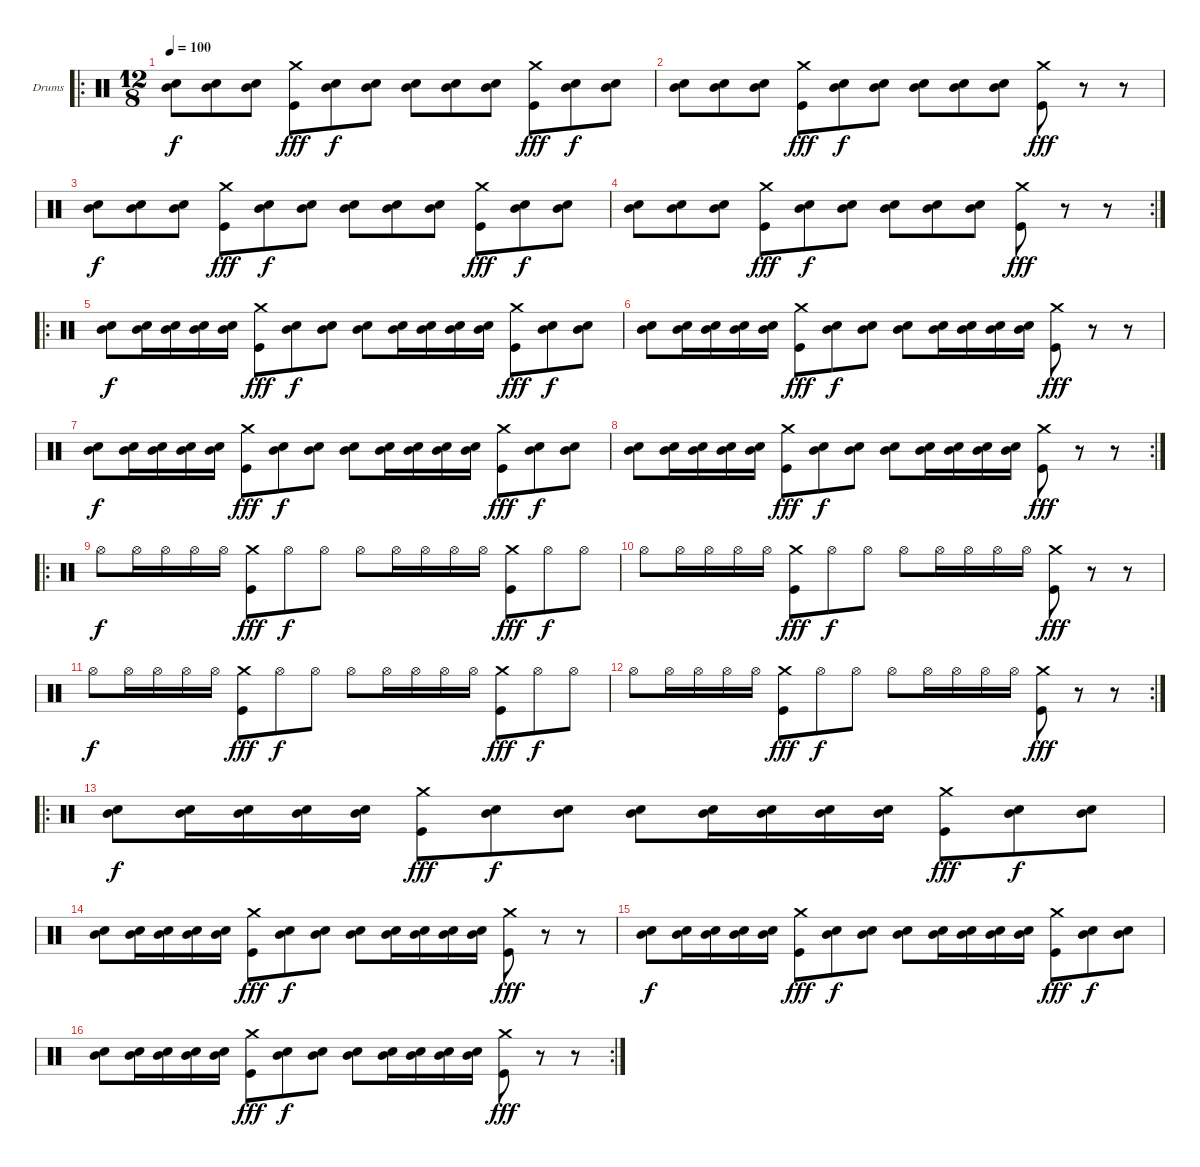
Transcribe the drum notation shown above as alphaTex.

\bracketExtendMode groupsimilarinstruments
\firstSystemTrackNameOrientation horizontal
\otherSystemsTrackNameOrientation horizontal
\track ("Сеня(Drumkit)" "Drums") {instrument percussion}
\staff {score}
\articulation defaults
\ro
\ts (12 8)
\tempo 100
\clef neutral
\ks c
("Mid Tom (hit)" "Snare (hit) 2").8{dy f} ("Mid Tom (hit)" "Snare (hit) 2").8 ("Mid Tom (hit)" "Snare (hit) 2").8 ("Crash medium (hit)" "Kick (hit)").8{dy fff} ("Mid Tom (hit)" "Snare (hit) 2").8{dy f} ("Mid Tom (hit)" "Snare (hit) 2").8 ("Mid Tom (hit)" "Snare (hit) 2").8 ("Mid Tom (hit)" "Snare (hit) 2").8 ("Mid Tom (hit)" "Snare (hit) 2").8 ("Crash medium (hit)" "Kick (hit)").8{dy fff} ("Mid Tom (hit)" "Snare (hit) 2").8{dy f} ("Mid Tom (hit)" "Snare (hit) 2").8 |
("Mid Tom (hit)" "Snare (hit) 2").8 ("Mid Tom (hit)" "Snare (hit) 2").8 ("Mid Tom (hit)" "Snare (hit) 2").8 ("Crash medium (hit)" "Kick (hit)").8{dy fff} ("Mid Tom (hit)" "Snare (hit) 2").8{dy f} ("Mid Tom (hit)" "Snare (hit) 2").8 ("Mid Tom (hit)" "Snare (hit) 2").8 ("Mid Tom (hit)" "Snare (hit) 2").8 ("Mid Tom (hit)" "Snare (hit) 2").8 ("Crash medium (hit)" "Kick (hit)").8{dy fff} r.8 r.8 |
("Mid Tom (hit)" "Snare (hit) 2").8{dy f} ("Mid Tom (hit)" "Snare (hit) 2").8 ("Mid Tom (hit)" "Snare (hit) 2").8 ("Crash medium (hit)" "Kick (hit)").8{dy fff} ("Mid Tom (hit)" "Snare (hit) 2").8{dy f} ("Mid Tom (hit)" "Snare (hit) 2").8 ("Mid Tom (hit)" "Snare (hit) 2").8 ("Mid Tom (hit)" "Snare (hit) 2").8 ("Mid Tom (hit)" "Snare (hit) 2").8 ("Crash medium (hit)" "Kick (hit)").8{dy fff} ("Mid Tom (hit)" "Snare (hit) 2").8{dy f} ("Mid Tom (hit)" "Snare (hit) 2").8 |
\rc 2
("Mid Tom (hit)" "Snare (hit) 2").8 ("Mid Tom (hit)" "Snare (hit) 2").8 ("Mid Tom (hit)" "Snare (hit) 2").8 ("Crash medium (hit)" "Kick (hit)").8{dy fff} ("Mid Tom (hit)" "Snare (hit) 2").8{dy f} ("Mid Tom (hit)" "Snare (hit) 2").8 ("Mid Tom (hit)" "Snare (hit) 2").8 ("Mid Tom (hit)" "Snare (hit) 2").8 ("Mid Tom (hit)" "Snare (hit) 2").8 ("Crash medium (hit)" "Kick (hit)").8{dy fff} r.8 r.8 |
\ro
("Mid Tom (hit)" "Snare (hit) 2").8{dy f} ("Mid Tom (hit)" "Snare (hit) 2").16 ("Mid Tom (hit)" "Snare (hit) 2").16 ("Mid Tom (hit)" "Snare (hit) 2").16 ("Mid Tom (hit)" "Snare (hit) 2").16 ("Crash medium (hit)" "Kick (hit)").8{dy fff} ("Mid Tom (hit)" "Snare (hit) 2").8{dy f} ("Mid Tom (hit)" "Snare (hit) 2").8 ("Mid Tom (hit)" "Snare (hit) 2").8 ("Mid Tom (hit)" "Snare (hit) 2").16 ("Mid Tom (hit)" "Snare (hit) 2").16 ("Mid Tom (hit)" "Snare (hit) 2").16 ("Mid Tom (hit)" "Snare (hit) 2").16 ("Crash medium (hit)" "Kick (hit)").8{dy fff} ("Mid Tom (hit)" "Snare (hit) 2").8{dy f} ("Mid Tom (hit)" "Snare (hit) 2").8 |
("Mid Tom (hit)" "Snare (hit) 2").8 ("Mid Tom (hit)" "Snare (hit) 2").16 ("Mid Tom (hit)" "Snare (hit) 2").16 ("Mid Tom (hit)" "Snare (hit) 2").16 ("Mid Tom (hit)" "Snare (hit) 2").16 ("Crash medium (hit)" "Kick (hit)").8{dy fff} ("Mid Tom (hit)" "Snare (hit) 2").8{dy f} ("Mid Tom (hit)" "Snare (hit) 2").8 ("Mid Tom (hit)" "Snare (hit) 2").8 ("Mid Tom (hit)" "Snare (hit) 2").16 ("Mid Tom (hit)" "Snare (hit) 2").16 ("Mid Tom (hit)" "Snare (hit) 2").16 ("Mid Tom (hit)" "Snare (hit) 2").16 ("Crash medium (hit)" "Kick (hit)").8{dy fff} r.8 r.8 |
("Mid Tom (hit)" "Snare (hit) 2").8{dy f} ("Mid Tom (hit)" "Snare (hit) 2").16 ("Mid Tom (hit)" "Snare (hit) 2").16 ("Mid Tom (hit)" "Snare (hit) 2").16 ("Mid Tom (hit)" "Snare (hit) 2").16 ("Crash medium (hit)" "Kick (hit)").8{dy fff} ("Mid Tom (hit)" "Snare (hit) 2").8{dy f} ("Mid Tom (hit)" "Snare (hit) 2").8 ("Mid Tom (hit)" "Snare (hit) 2").8 ("Mid Tom (hit)" "Snare (hit) 2").16 ("Mid Tom (hit)" "Snare (hit) 2").16 ("Mid Tom (hit)" "Snare (hit) 2").16 ("Mid Tom (hit)" "Snare (hit) 2").16 ("Crash medium (hit)" "Kick (hit)").8{dy fff} ("Mid Tom (hit)" "Snare (hit) 2").8{dy f} ("Mid Tom (hit)" "Snare (hit) 2").8 |
\rc 2
("Mid Tom (hit)" "Snare (hit) 2").8 ("Mid Tom (hit)" "Snare (hit) 2").16 ("Mid Tom (hit)" "Snare (hit) 2").16 ("Mid Tom (hit)" "Snare (hit) 2").16 ("Mid Tom (hit)" "Snare (hit) 2").16 ("Crash medium (hit)" "Kick (hit)").8{dy fff} ("Mid Tom (hit)" "Snare (hit) 2").8{dy f} ("Mid Tom (hit)" "Snare (hit) 2").8 ("Mid Tom (hit)" "Snare (hit) 2").8 ("Mid Tom (hit)" "Snare (hit) 2").16 ("Mid Tom (hit)" "Snare (hit) 2").16 ("Mid Tom (hit)" "Snare (hit) 2").16 ("Mid Tom (hit)" "Snare (hit) 2").16 ("Crash medium (hit)" "Kick (hit)").8{dy fff} r.8 r.8 |
\ro "Hi-Hat (open)".8{dy f} "Hi-Hat (open)".16 "Hi-Hat (open)".16 "Hi-Hat (open)".16 "Hi-Hat (open)".16
("Crash medium (hit)" "Kick (hit)").8{dy fff} "Hi-Hat (open)".8{dy f} "Hi-Hat (open)".8 "Hi-Hat (open)".8 "Hi-Hat (open)".16 "Hi-Hat (open)".16 "Hi-Hat (open)".16 "Hi-Hat (open)".16 ("Crash medium (hit)" "Kick (hit)").8{dy fff} "Hi-Hat (open)".8{dy f} "Hi-Hat (open)".8 |
"Hi-Hat (open)".8 "Hi-Hat (open)".16 "Hi-Hat (open)".16 "Hi-Hat (open)".16 "Hi-Hat (open)".16 ("Crash medium (hit)" "Kick (hit)").8{dy fff} "Hi-Hat (open)".8{dy f} "Hi-Hat (open)".8 "Hi-Hat (open)".8 "Hi-Hat (open)".16 "Hi-Hat (open)".16 "Hi-Hat (open)".16 "Hi-Hat (open)".16 ("Crash medium (hit)" "Kick (hit)").8{dy fff} r.8 r.8 |
"Hi-Hat (open)".8{dy f} "Hi-Hat (open)".16 "Hi-Hat (open)".16 "Hi-Hat (open)".16 "Hi-Hat (open)".16 ("Crash medium (hit)" "Kick (hit)").8{dy fff} "Hi-Hat (open)".8{dy f} "Hi-Hat (open)".8 "Hi-Hat (open)".8 "Hi-Hat (open)".16 "Hi-Hat (open)".16 "Hi-Hat (open)".16 "Hi-Hat (open)".16 ("Crash medium (hit)" "Kick (hit)").8{dy fff} "Hi-Hat (open)".8{dy f} "Hi-Hat (open)".8 |
\rc 2 "Hi-Hat (open)".8 "Hi-Hat (open)".16 "Hi-Hat (open)".16 "Hi-Hat (open)".16 "Hi-Hat (open)".16
("Crash medium (hit)" "Kick (hit)").8{dy fff} "Hi-Hat (open)".8{dy f} "Hi-Hat (open)".8 "Hi-Hat (open)".8 "Hi-Hat (open)".16 "Hi-Hat (open)".16 "Hi-Hat (open)".16 "Hi-Hat (open)".16 ("Crash medium (hit)" "Kick (hit)").8{dy fff} r.8 r.8 |
\ro
("Mid Tom (hit)" "Snare (hit) 2").8{dy f} ("Mid Tom (hit)" "Snare (hit) 2").16 ("Mid Tom (hit)" "Snare (hit) 2").16 ("Mid Tom (hit)" "Snare (hit) 2").16 ("Mid Tom (hit)" "Snare (hit) 2").16 ("Crash medium (hit)" "Kick (hit)").8{dy fff} ("Mid Tom (hit)" "Snare (hit) 2").8{dy f} ("Mid Tom (hit)" "Snare (hit) 2").8 ("Mid Tom (hit)" "Snare (hit) 2").8 ("Mid Tom (hit)" "Snare (hit) 2").16 ("Mid Tom (hit)" "Snare (hit) 2").16 ("Mid Tom (hit)" "Snare (hit) 2").16 ("Mid Tom (hit)" "Snare (hit) 2").16 ("Crash medium (hit)" "Kick (hit)").8{dy fff} ("Mid Tom (hit)" "Snare (hit) 2").8{dy f} ("Mid Tom (hit)" "Snare (hit) 2").8 |
("Mid Tom (hit)" "Snare (hit) 2").8 ("Mid Tom (hit)" "Snare (hit) 2").16 ("Mid Tom (hit)" "Snare (hit) 2").16 ("Mid Tom (hit)" "Snare (hit) 2").16 ("Mid Tom (hit)" "Snare (hit) 2").16 ("Crash medium (hit)" "Kick (hit)").8{dy fff} ("Mid Tom (hit)" "Snare (hit) 2").8{dy f} ("Mid Tom (hit)" "Snare (hit) 2").8 ("Mid Tom (hit)" "Snare (hit) 2").8 ("Mid Tom (hit)" "Snare (hit) 2").16 ("Mid Tom (hit)" "Snare (hit) 2").16 ("Mid Tom (hit)" "Snare (hit) 2").16 ("Mid Tom (hit)" "Snare (hit) 2").16 ("Crash medium (hit)" "Kick (hit)").8{dy fff} r.8 r.8 |
("Mid Tom (hit)" "Snare (hit) 2").8{dy f} ("Mid Tom (hit)" "Snare (hit) 2").16 ("Mid Tom (hit)" "Snare (hit) 2").16 ("Mid Tom (hit)" "Snare (hit) 2").16 ("Mid Tom (hit)" "Snare (hit) 2").16 ("Crash medium (hit)" "Kick (hit)").8{dy fff} ("Mid Tom (hit)" "Snare (hit) 2").8{dy f} ("Mid Tom (hit)" "Snare (hit) 2").8 ("Mid Tom (hit)" "Snare (hit) 2").8 ("Mid Tom (hit)" "Snare (hit) 2").16 ("Mid Tom (hit)" "Snare (hit) 2").16 ("Mid Tom (hit)" "Snare (hit) 2").16 ("Mid Tom (hit)" "Snare (hit) 2").16 ("Crash medium (hit)" "Kick (hit)").8{dy fff} ("Mid Tom (hit)" "Snare (hit) 2").8{dy f} ("Mid Tom (hit)" "Snare (hit) 2").8 |
\rc 2
("Mid Tom (hit)" "Snare (hit) 2").8 ("Mid Tom (hit)" "Snare (hit) 2").16 ("Mid Tom (hit)" "Snare (hit) 2").16 ("Mid Tom (hit)" "Snare (hit) 2").16 ("Mid Tom (hit)" "Snare (hit) 2").16 ("Crash medium (hit)" "Kick (hit)").8{dy fff} ("Mid Tom (hit)" "Snare (hit) 2").8{dy f} ("Mid Tom (hit)" "Snare (hit) 2").8 ("Mid Tom (hit)" "Snare (hit) 2").8 ("Mid Tom (hit)" "Snare (hit) 2").16 ("Mid Tom (hit)" "Snare (hit) 2").16 ("Mid Tom (hit)" "Snare (hit) 2").16 ("Mid Tom (hit)" "Snare (hit) 2").16 ("Crash medium (hit)" "Kick (hit)").8{dy fff} r.8 r.8
